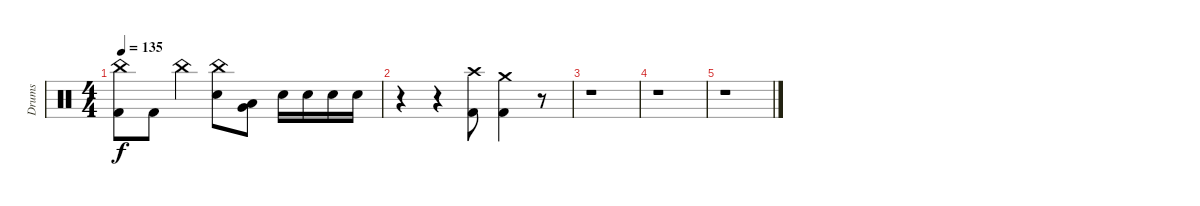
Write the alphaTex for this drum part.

\track ("Drums" "Drums") {instrument percussion}
\staff {score}
\articulation defaults
\ts (4 4)
\tempo 135
\clef neutral
\ks c
("China (hit)" "Kick (hit) 2").8{dy f} "Kick (hit) 2".8 "China (hit)".4 ("China (hit)" "Snare (hit) 2").8 ("Very Low Tom (hit)" "Low Floor Tom (hit)").8 "Electric Snare (hit)".16 "Electric Snare (hit)".16 "Electric Snare (hit)".16 "Electric Snare (hit)".16 |
r.4 r.4 ("Crash high (hit)" "Kick (hit) 2").8 ("Crash medium (hit)" "Kick (hit) 2").4 r.8 |
r.1 |
r.1 |
r.1
